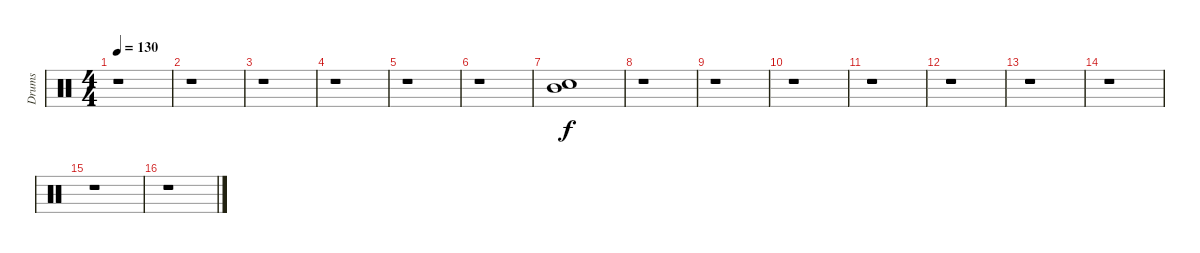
\track ("Drums" "Drums") {instrument percussion}
\staff {score}
\articulation defaults
\ts (4 4)
\tempo 130
\clef neutral
\ks c
r.1{dy f} |
r.1 |
r.1 |
r.1 |
r.1 |
r.1 |
("Snare (hit) 2" "Mid Tom (hit)").1 |
r.1 |
r.1 |
r.1 |
r.1 |
r.1 |
r.1 |
r.1 |
r.1 |
r.1
